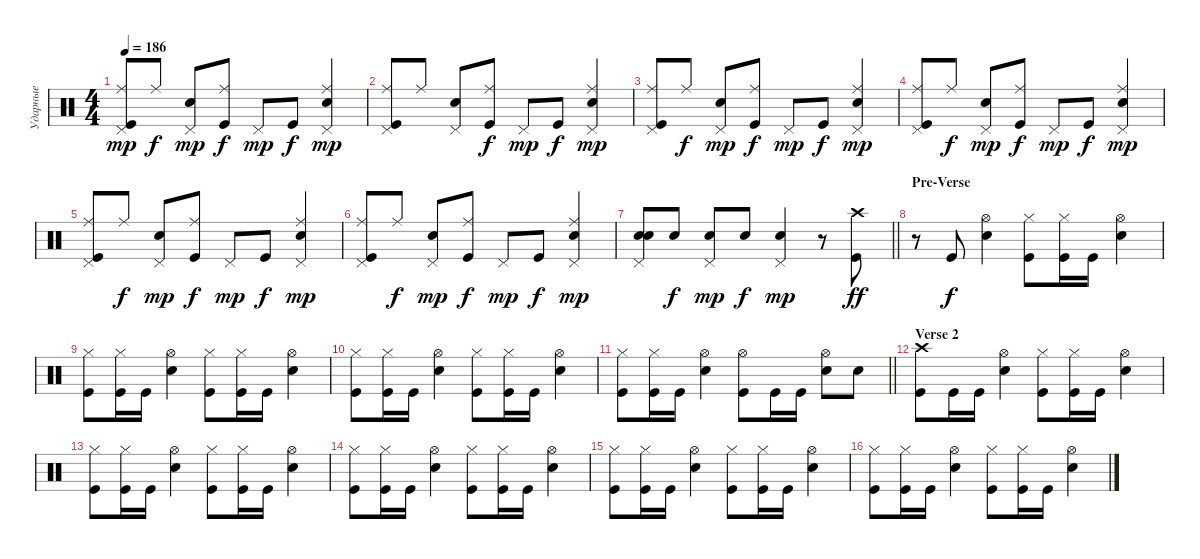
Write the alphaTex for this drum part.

\track ("Ударные" "Ударные") {instrument percussion}
\staff {score}
\articulation defaults
\ts (4 4)
\tempo 186
\clef neutral
\ks aminor
("Pedal Hi-Hat (hit)" "Ride (middle)" "Kick (hit)").8{dy mp} "Ride (middle)".8{dy f} ("Snare (hit) 2" "Pedal Hi-Hat (hit)").8{dy mp} ("Kick (hit)" "Ride (middle)").8{dy f} "Pedal Hi-Hat (hit)".8{dy mp} "Kick (hit)".8{dy f} ("Snare (hit) 2" "Ride (middle)" "Pedal Hi-Hat (hit)").4{dy mp} |
("Pedal Hi-Hat (hit)" "Ride (middle)" "Kick (hit)").8 "Ride (middle)".8 ("Snare (hit) 2" "Pedal Hi-Hat (hit)").8 ("Kick (hit)" "Ride (middle)").8{dy f} "Pedal Hi-Hat (hit)".8{dy mp} "Kick (hit)".8{dy f} ("Snare (hit) 2" "Ride (middle)" "Pedal Hi-Hat (hit)").4{dy mp} |
("Pedal Hi-Hat (hit)" "Ride (middle)" "Kick (hit)").8 "Ride (middle)".8{dy f} ("Snare (hit) 2" "Pedal Hi-Hat (hit)").8{dy mp} ("Kick (hit)" "Ride (middle)").8{dy f} "Pedal Hi-Hat (hit)".8{dy mp} "Kick (hit)".8{dy f} ("Snare (hit) 2" "Ride (middle)" "Pedal Hi-Hat (hit)").4{dy mp} |
("Pedal Hi-Hat (hit)" "Ride (middle)" "Kick (hit)").8 "Ride (middle)".8{dy f} ("Snare (hit) 2" "Pedal Hi-Hat (hit)").8{dy mp} ("Kick (hit)" "Ride (middle)").8{dy f} "Pedal Hi-Hat (hit)".8{dy mp} "Kick (hit)".8{dy f} ("Snare (hit) 2" "Ride (middle)" "Pedal Hi-Hat (hit)").4{dy mp} |
("Pedal Hi-Hat (hit)" "Ride (middle)" "Kick (hit)").8 "Ride (middle)".8{dy f} ("Snare (hit) 2" "Pedal Hi-Hat (hit)").8{dy mp} ("Kick (hit)" "Ride (middle)").8{dy f} "Pedal Hi-Hat (hit)".8{dy mp} "Kick (hit)".8{dy f} ("Snare (hit) 2" "Ride (middle)" "Pedal Hi-Hat (hit)").4{dy mp} |
("Pedal Hi-Hat (hit)" "Ride (middle)" "Kick (hit)").8 "Ride (middle)".8{dy f} ("Snare (hit) 2" "Pedal Hi-Hat (hit)").8{dy mp} ("Kick (hit)" "Ride (middle)").8{dy f} "Pedal Hi-Hat (hit)".8{dy mp} "Kick (hit)".8{dy f} ("Snare (hit) 2" "Ride (middle)" "Pedal Hi-Hat (hit)").4{dy mp} |
\barLineRight lightlight
("Snare (hit) 2" "Snare (hit) 2" "Pedal Hi-Hat (hit)").8{bd 240} "Snare (hit) 2".8{dy f} ("Snare (hit) 2" "Pedal Hi-Hat (hit)").8{dy mp} "Snare (hit) 2".8{dy f} ("Snare (hit) 2" "Pedal Hi-Hat (hit)").4{dy mp} r.8 ("Kick (hit)" "Crash high (hit)").8{dy ff} |
\section ("" "Pre-Verse")
r.8 "Kick (hit)".8{dy f} ("Snare (hit) 2" "Hi-Hat (open)").4 ("Kick (hit)" "Hi-Hat (closed)").8 ("Kick (hit)" "Hi-Hat (closed)").16 "Kick (hit)".16 ("Snare (hit) 2" "Hi-Hat (open)").4 |
("Kick (hit)" "Hi-Hat (closed)").8 ("Kick (hit)" "Hi-Hat (closed)").16 "Kick (hit)".16 ("Snare (hit) 2" "Hi-Hat (open)").4 ("Kick (hit)" "Hi-Hat (closed)").8 ("Kick (hit)" "Hi-Hat (closed)").16 "Kick (hit)".16 ("Snare (hit) 2" "Hi-Hat (open)").4 |
("Kick (hit)" "Hi-Hat (closed)").8 ("Kick (hit)" "Hi-Hat (closed)").16 "Kick (hit)".16 ("Snare (hit) 2" "Hi-Hat (open)").4 ("Kick (hit)" "Hi-Hat (closed)").8 ("Kick (hit)" "Hi-Hat (closed)").16 "Kick (hit)".16 ("Snare (hit) 2" "Hi-Hat (open)").4 |
\barLineRight lightlight
("Kick (hit)" "Hi-Hat (closed)").8 ("Kick (hit)" "Hi-Hat (closed)").16 "Kick (hit)".16 ("Snare (hit) 2" "Hi-Hat (open)").4 ("Kick (hit)" "Hi-Hat (open)").8 "Kick (hit)".16 "Kick (hit)".16 ("Snare (hit) 2" "Hi-Hat (open)").8 "Snare (hit) 2".8 |
\section ("" "Verse 2")
("Kick (hit)" "Crash high (hit)").8 "Kick (hit)".16 "Kick (hit)".16 ("Snare (hit) 2" "Hi-Hat (open)").4 ("Kick (hit)" "Hi-Hat (closed)").8 ("Kick (hit)" "Hi-Hat (closed)").16 "Kick (hit)".16 ("Snare (hit) 2" "Hi-Hat (open)").4 |
("Kick (hit)" "Hi-Hat (closed)").8 ("Kick (hit)" "Hi-Hat (closed)").16 "Kick (hit)".16 ("Snare (hit) 2" "Hi-Hat (open)").4 ("Kick (hit)" "Hi-Hat (closed)").8 ("Kick (hit)" "Hi-Hat (closed)").16 "Kick (hit)".16 ("Snare (hit) 2" "Hi-Hat (open)").4 |
("Kick (hit)" "Hi-Hat (closed)").8 ("Kick (hit)" "Hi-Hat (closed)").16 "Kick (hit)".16 ("Snare (hit) 2" "Hi-Hat (open)").4 ("Kick (hit)" "Hi-Hat (closed)").8 ("Kick (hit)" "Hi-Hat (closed)").16 "Kick (hit)".16 ("Snare (hit) 2" "Hi-Hat (open)").4 |
("Kick (hit)" "Hi-Hat (closed)").8 ("Kick (hit)" "Hi-Hat (closed)").16 "Kick (hit)".16 ("Snare (hit) 2" "Hi-Hat (open)").4 ("Kick (hit)" "Hi-Hat (closed)").8 ("Kick (hit)" "Hi-Hat (closed)").16 "Kick (hit)".16 ("Snare (hit) 2" "Hi-Hat (open)").4 |
("Kick (hit)" "Hi-Hat (closed)").8 ("Kick (hit)" "Hi-Hat (closed)").16 "Kick (hit)".16 ("Snare (hit) 2" "Hi-Hat (open)").4 ("Kick (hit)" "Hi-Hat (closed)").8 ("Kick (hit)" "Hi-Hat (closed)").16 "Kick (hit)".16 ("Snare (hit) 2" "Hi-Hat (open)").4
